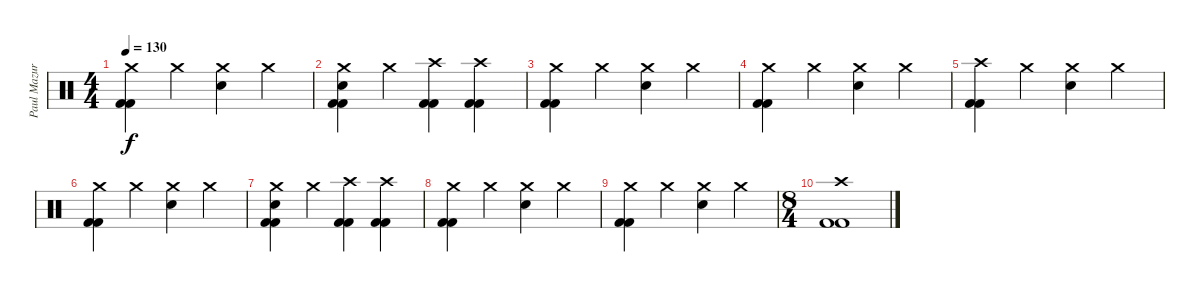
\track ("Paul Mazurkiewicz" "Paul Mazur") {instrument percussion}
\staff {score}
\articulation defaults
\ts (4 4)
\tempo 130
\clef neutral
\ks c
("Crash medium (hit)" "Kick (hit) 2" "Kick (hit) 2").4{dy f} "Crash medium (hit)".4 ("Crash medium (hit)" "Snare (hit) 2").4 "Crash medium (hit)".4 |
("Crash medium (hit)" "Snare (hit) 2" "Kick (hit) 2" "Kick (hit) 2").4 "Crash medium (hit)".4 ("Crash high (hit)" "Kick (hit) 2" "Kick (hit) 2").4 ("Crash high (hit)" "Kick (hit) 2" "Kick (hit) 2").4 |
("Crash medium (hit)" "Kick (hit) 2" "Kick (hit) 2").4 "Crash medium (hit)".4 ("Crash medium (hit)" "Snare (hit) 2").4 "Crash medium (hit)".4 |
("Crash medium (hit)" "Kick (hit) 2" "Kick (hit) 2").4 "Crash medium (hit)".4 ("Crash medium (hit)" "Snare (hit) 2").4 "Crash medium (hit)".4 |
("Crash high (hit)" "Kick (hit) 2" "Kick (hit) 2").4 "Crash medium (hit)".4 ("Crash medium (hit)" "Snare (hit) 2").4 "Crash medium (hit)".4 |
("Crash medium (hit)" "Kick (hit) 2" "Kick (hit) 2").4 "Crash medium (hit)".4 ("Crash medium (hit)" "Snare (hit) 2").4 "Crash medium (hit)".4 |
("Crash medium (hit)" "Snare (hit) 2" "Kick (hit) 2" "Kick (hit) 2").4 "Crash medium (hit)".4 ("Crash high (hit)" "Kick (hit) 2" "Kick (hit) 2").4 ("Crash high (hit)" "Kick (hit) 2" "Kick (hit) 2").4 |
("Crash medium (hit)" "Kick (hit) 2" "Kick (hit) 2").4 "Crash medium (hit)".4 ("Crash medium (hit)" "Snare (hit) 2").4 "Crash medium (hit)".4 |
("Crash medium (hit)" "Kick (hit) 2" "Kick (hit) 2").4 "Crash medium (hit)".4 ("Crash medium (hit)" "Snare (hit) 2").4 "Crash medium (hit)".4 |
\ts (8 4)
("Crash high (hit)" "Kick (hit) 2" "Kick (hit) 2").1
